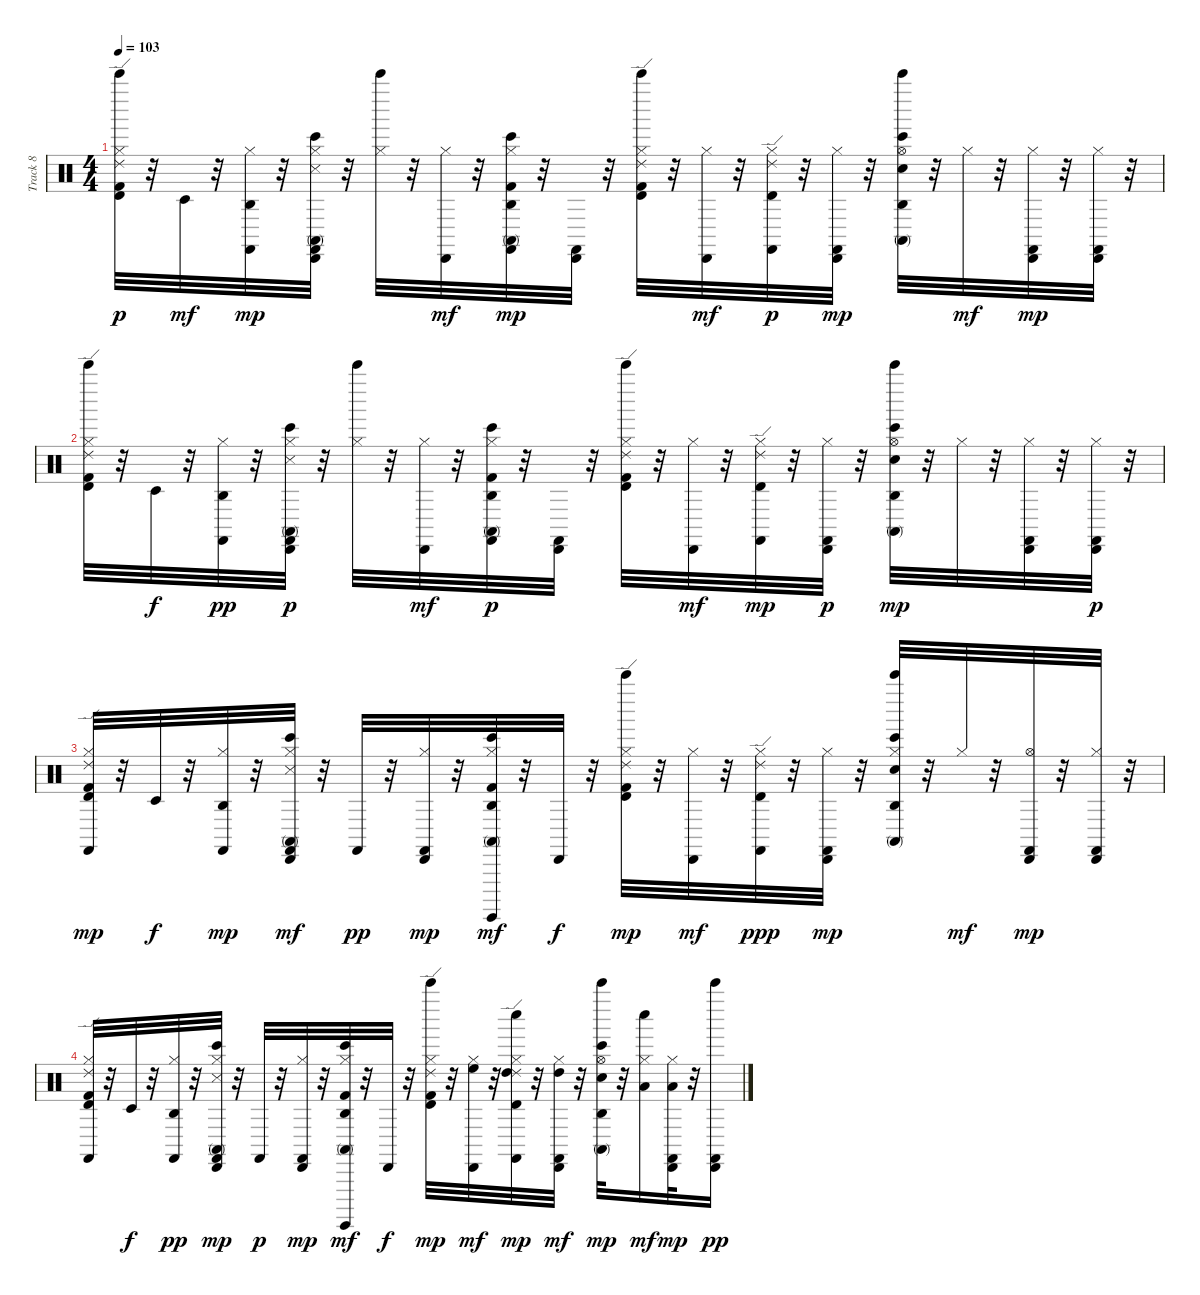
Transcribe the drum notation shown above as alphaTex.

\track ("Track 8" "Track 8") {instrument percussion}
\staff {score}
\articulation defaults
\ts (4 4)
\tempo 103
\clef neutral
\ks c
("Ride (edge) 2" "Timbale high (hit)" "Kick (hit) 2" "Hi-Hat (closed)" "Bell Tree (hit)").32{dy p} r.32 "Timbale low (hit)".32{dy mf} r.32 ("Agogo high (hit)" "Hi-Hat (closed)" "Castanets (hit)").32{dy mp} r.32 ("Bongo High (hit)" "Conga high (mute)" "Cabasa (hit)" "Snare (side stick) 3" "Hi-Hat (closed)" "Castanets (hit)").32 r.32 ("Hi-Hat (closed)" "Bell Tree (hit)").32 r.32 ("Cabasa (hit)" "Hi-Hat (closed)").32{dy mf} r.32 ("Bongo High (hit)" "Conga high (mute)" "Agogo high (hit)" "Kick (hit) 2" "Hi-Hat (closed)" "Castanets (hit)").32{dy mp} r.32 ("Cabasa (hit)" "Castanets (hit)").32 r.32 ("Ride (edge) 2" "Timbale high (hit)" "Kick (hit) 2" "Hi-Hat (closed)" "Bell Tree (hit)").32 r.32 ("Cabasa (hit)" "Hi-Hat (closed)").32{dy mf} r.32 ("Ride (edge) 2" "Timbale high (hit)" "Hi-Hat (closed)" "Castanets (hit)").32{dy p} r.32 ("Cabasa (hit)" "Hi-Hat (closed)" "Castanets (hit)").32{dy mp} r.32 ("Conga high (mute)" "Bongo High (hit)" "Agogo high (hit)" "Electric Snare (hit)" "Hi-Hat (open)" "Bell Tree (hit)").32 r.32 "Hi-Hat (closed)".32{dy mf} r.32 ("Cabasa (hit)" "Hi-Hat (closed)" "Castanets (hit)").32{dy mp} r.32 ("Cabasa (hit)" "Hi-Hat (closed)" "Castanets (hit)").32 r.32 |
("Ride (edge) 2" "Timbale high (hit)" "Kick (hit) 2" "Hi-Hat (closed)" "Bell Tree (hit)").32 r.32 "Timbale low (hit)".32{dy f} r.32 ("Agogo high (hit)" "Hi-Hat (closed)" "Castanets (hit)").32{dy pp} r.32 ("Bongo High (hit)" "Conga high (mute)" "Cabasa (hit)" "Snare (side stick) 3" "Hi-Hat (closed)" "Castanets (hit)").32{dy p} r.32 ("Hi-Hat (closed)" "Bell Tree (hit)").32 r.32 ("Cabasa (hit)" "Hi-Hat (closed)").32{dy mf} r.32 ("Bongo High (hit)" "Conga high (mute)" "Agogo high (hit)" "Kick (hit) 2" "Hi-Hat (closed)" "Castanets (hit)").32{dy p} r.32 ("Cabasa (hit)" "Castanets (hit)").32 r.32 ("Ride (edge) 2" "Timbale high (hit)" "Kick (hit) 2" "Hi-Hat (closed)" "Bell Tree (hit)").32 r.32 ("Cabasa (hit)" "Hi-Hat (closed)").32{dy mf} r.32 ("Ride (edge) 2" "Timbale high (hit)" "Hi-Hat (closed)" "Castanets (hit)").32{dy mp} r.32 ("Cabasa (hit)" "Hi-Hat (closed)" "Castanets (hit)").32{dy p} r.32 ("Bongo High (hit)" "Conga high (mute)" "Agogo high (hit)" "Hi-Hat (open)" "Electric Snare (hit)" "Bell Tree (hit)").32{dy mp} r.32 "Hi-Hat (closed)".32 r.32 ("Cabasa (hit)" "Hi-Hat (closed)" "Castanets (hit)").32 r.32 ("Cabasa (hit)" "Hi-Hat (closed)" "Castanets (hit)").32{dy p} r.32 |
("Ride (edge) 2" "Timbale high (hit)" "Kick (hit) 2" "Hi-Hat (closed)" "Castanets (hit)").32{dy mp} r.32 "Timbale low (hit)".32{dy f} r.32 ("Agogo high (hit)" "Hi-Hat (closed)" "Castanets (hit)").32{dy mp} r.32 ("Bongo High (hit)" "Conga high (mute)" "Cabasa (hit)" "Snare (side stick) 3" "Castanets (hit)" "Hi-Hat (closed)").32{dy mf} r.32 "Castanets (hit)".32{dy pp} r.32 ("Cabasa (hit)" "Hi-Hat (closed)" "Castanets (hit)").32{dy mp} r.32 ("Bongo High (hit)" "Conga high (mute)" "Agogo high (hit)" "Kick (hit) 2" "Hi-Hat (closed)" "Surdo (hit)").32{dy mf} r.32 "Cabasa (hit)".32{dy f} r.32 ("Ride (edge) 2" "Timbale high (hit)" "Kick (hit) 2" "Hi-Hat (closed)" "Bell Tree (hit)").32{dy mp} r.32 ("Cabasa (hit)" "Hi-Hat (closed)").32{dy mf} r.32 ("Ride (edge) 2" "Timbale high (hit)" "Hi-Hat (closed)" "Castanets (hit)").32{dy ppp} r.32 ("Cabasa (hit)" "Hi-Hat (closed)" "Castanets (hit)").32{dy mp} r.32 ("Bongo High (hit)" "Conga high (mute)" "Agogo high (hit)" "Electric Snare (hit)" "Hi-Hat (closed)" "Bell Tree (hit)").32 r.32 "Hi-Hat (closed)".32{dy mf} r.32 ("Cabasa (hit)" "Hi-Hat (open)" "Castanets (hit)").32{dy mp} r.32 ("Cabasa (hit)" "Hi-Hat (closed)" "Castanets (hit)").32 r.32 |
("Ride (edge) 2" "Timbale high (hit)" "Kick (hit) 2" "Hi-Hat (closed)" "Castanets (hit)").32 r.32 "Timbale low (hit)".32{dy f} r.32 ("Agogo high (hit)" "Hi-Hat (closed)" "Castanets (hit)").32{dy pp} r.32 ("Bongo High (hit)" "Conga high (mute)" "Cabasa (hit)" "Snare (side stick) 3" "Hi-Hat (closed)" "Castanets (hit)").32{dy mp} r.32 "Castanets (hit)".32{dy p} r.32 ("Cabasa (hit)" "Hi-Hat (closed)" "Castanets (hit)").32{dy mp} r.32 ("Bongo High (hit)" "Conga high (mute)" "Agogo high (hit)" "Kick (hit) 2" "Hi-Hat (closed)" "Surdo (hit)").32{dy mf} r.32 "Cabasa (hit)".32{dy f} r.32 ("Ride (edge) 2" "Timbale high (hit)" "Kick (hit) 2" "Hi-Hat (closed)" "Bell Tree (hit)").32{dy mp} r.32 ("Cabasa (hit)" "Hi-Hat (closed)" "High Floor Tom (hit)").32{dy mf} r.32 ("Ride (edge) 2" "Timbale high (hit)" "Hi-Hat (closed)" "Castanets (hit)" "Whistle low (hit)" "High Tom (hit)").32{dy mp} r.32 ("Cabasa (hit)" "Hi-Hat (closed)" "Castanets (hit)" "High Tom (hit)").32{dy mf} r.32 ("Bongo High (hit)" "Conga high (mute)" "Agogo high (hit)" "Hi-Hat (open)" "Electric Snare (hit)" "Bell Tree (hit)").32{dy mp} r.32 ("Hi-Hat (closed)" "Whistle low (hit)" "Low Tom (hit)").16{dy mf} ("Cabasa (hit)" "Hi-Hat (closed)" "Castanets (hit)" "Low Tom (hit)").32{dy mp} r.32 ("Cabasa (hit)" "Castanets (hit)" "Bell Tree (hit)").16{dy pp}
